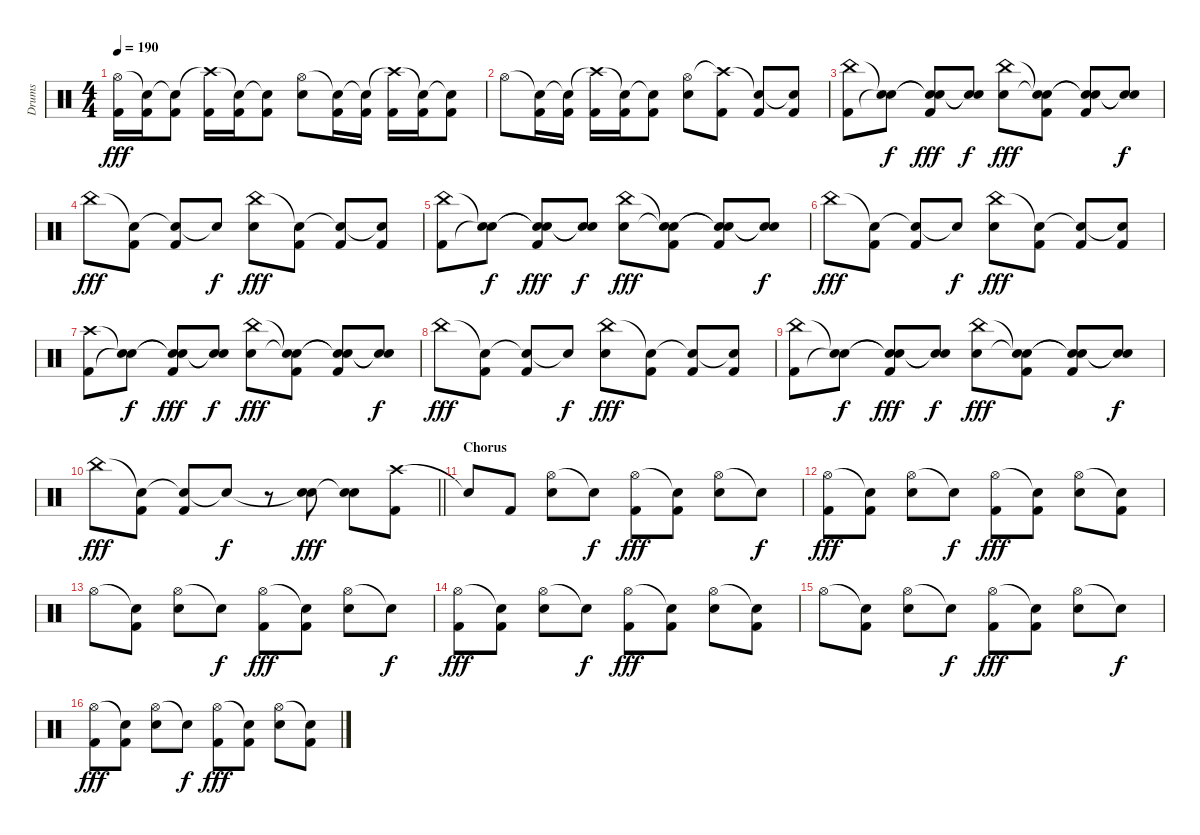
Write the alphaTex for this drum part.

\track ("Drums" "Drums") {instrument percussion}
\staff {score}
\articulation defaults
\ts (4 4)
\tempo 190
\clef neutral
\ks c
("Hi-Hat (open)" "Kick (hit) 2").16{dy fff} ("Snare (hit)"{t} "Kick (hit) 2").16 ("Snare (hit)"{t} "Kick (hit) 2").8 ("Crash high (hit)"{t} "Kick (hit) 2").16 ("Snare (hit)"{t} "Kick (hit) 2").16 ("Snare (hit)"{t} "Kick (hit) 2").8 ("Hi-Hat (open)" "Electric Snare (hit)").8 ("Snare (hit)"{t} "Kick (hit) 2").16 ("Snare (hit)"{t} "Kick (hit) 2").16 ("Crash high (hit)"{t} "Kick (hit) 2").16 ("Snare (hit)"{t} "Kick (hit) 2").16 ("Snare (hit)"{t} "Kick (hit) 2").8 |
"Hi-Hat (open)".8 ("Snare (hit)"{t} "Kick (hit) 2").16 ("Snare (hit)"{t} "Kick (hit) 2").16 ("Crash high (hit)"{t} "Kick (hit) 2").16 ("Snare (hit)"{t} "Kick (hit) 2").16 ("Snare (hit)"{t} "Kick (hit) 2").8 ("Hi-Hat (open)" "Electric Snare (hit)").8 ("Crash high (hit)"{t} "Kick (hit) 2").8 ("Snare (hit)"{t} "Kick (hit) 2").8 ("Snare (hit)"{t} "Kick (hit) 2").8 |
("China (hit)" "Kick (hit) 2").8 ("Snare (hit)"{t} "Snare (hit)"{t}).8{dy f} ("Snare (hit)"{t} "Snare (hit)"{t} "Kick (hit) 2").8{dy fff} ("Snare (hit)"{t} "Snare (hit)"{t}).8{dy f} ("China (hit)" "Electric Snare (hit)").8{dy fff} ("Snare (hit)"{t} "Snare (hit)"{t} "Kick (hit) 2").8 ("Snare (hit)"{t} "Snare (hit)"{t} "Kick (hit) 2").8 ("Snare (hit)"{t} "Snare (hit)"{t}).8{dy f} |
"China (hit)".8{dy fff} ("Snare (hit)"{t} "Kick (hit) 2").8 ("Snare (hit)"{t} "Kick (hit) 2").8 "Snare (hit)"{t}.8{dy f} ("China (hit)" "Electric Snare (hit)").8{dy fff} ("Snare (hit)"{t} "Kick (hit) 2").8 ("Snare (hit)"{t} "Kick (hit) 2").8 ("Snare (hit)"{t} "Kick (hit) 2").8 |
("China (hit)" "Kick (hit) 2").8 ("Snare (hit)"{t} "Snare (hit)"{t}).8{dy f} ("Snare (hit)"{t} "Snare (hit)"{t} "Kick (hit) 2").8{dy fff} ("Snare (hit)"{t} "Snare (hit)"{t}).8{dy f} ("China (hit)" "Electric Snare (hit)").8{dy fff} ("Snare (hit)"{t} "Snare (hit)"{t} "Kick (hit) 2").8 ("Snare (hit)"{t} "Snare (hit)"{t} "Kick (hit) 2").8 ("Snare (hit)"{t} "Snare (hit)"{t}).8{dy f} |
"China (hit)".8{dy fff} ("Snare (hit)"{t} "Kick (hit) 2").8 ("Snare (hit)"{t} "Kick (hit) 2").8 "Snare (hit)"{t}.8{dy f} ("China (hit)" "Electric Snare (hit)").8{dy fff} ("Snare (hit)"{t} "Kick (hit) 2").8 ("Snare (hit)"{t} "Kick (hit) 2").8 ("Snare (hit)"{t} "Kick (hit) 2").8 |
("Crash high (hit)" "Kick (hit) 2").8 ("Snare (hit)"{t} "Snare (hit)"{t}).8{dy f} ("Snare (hit)"{t} "Snare (hit)"{t} "Kick (hit) 2").8{dy fff} ("Snare (hit)"{t} "Snare (hit)"{t}).8{dy f} ("China (hit)" "Electric Snare (hit)").8{dy fff} ("Snare (hit)"{t} "Snare (hit)"{t} "Kick (hit) 2").8 ("Snare (hit)"{t} "Snare (hit)"{t} "Kick (hit) 2").8 ("Snare (hit)"{t} "Snare (hit)"{t}).8{dy f} |
"China (hit)".8{dy fff} ("Snare (hit)"{t} "Kick (hit) 2").8 ("Snare (hit)"{t} "Kick (hit) 2").8 "Snare (hit)"{t}.8{dy f} ("China (hit)" "Electric Snare (hit)").8{dy fff} ("Snare (hit)"{t} "Kick (hit) 2").8 ("Snare (hit)"{t} "Kick (hit) 2").8 ("Snare (hit)"{t} "Kick (hit) 2").8 |
("China (hit)" "Kick (hit) 2").8 ("Snare (hit)"{t} "Snare (hit)"{t}).8{dy f} ("Snare (hit)"{t} "Snare (hit)"{t} "Kick (hit) 2").8{dy fff} ("Snare (hit)"{t} "Snare (hit)"{t}).8{dy f} ("China (hit)" "Electric Snare (hit)").8{dy fff} ("Snare (hit)"{t} "Snare (hit)"{t} "Kick (hit) 2").8 ("Snare (hit)"{t} "Snare (hit)"{t} "Kick (hit) 2").8 ("Snare (hit)"{t} "Snare (hit)"{t}).8{dy f} |
\barLineRight lightlight "China (hit)".8{dy fff}
("Snare (hit)"{t} "Kick (hit) 2").8 ("Snare (hit)"{t} "Kick (hit) 2").8 "Snare (hit)"{t}.8{dy f} r.8 ("Snare (hit)"{t} "Electric Snare (hit)").8{dy fff} ("Snare (hit)"{t} "Electric Snare (hit)").8 ("Crash high (hit)" "Kick (hit) 2").8 |
\section ("" "Chorus")
"Snare (hit)"{t}.8 "Kick (hit) 2".8 ("Hi-Hat (open)" "Electric Snare (hit)").8 "Snare (hit)"{t}.8{dy f} ("Hi-Hat (open)" "Kick (hit) 2").8{dy fff} ("Snare (hit)"{t} "Kick (hit) 2").8 ("Hi-Hat (open)" "Electric Snare (hit)").8 "Snare (hit)"{t}.8{dy f} |
("Hi-Hat (open)" "Kick (hit) 2").8{dy fff} ("Snare (hit)"{t} "Kick (hit) 2").8 ("Hi-Hat (open)" "Electric Snare (hit)").8 "Snare (hit)"{t}.8{dy f} ("Hi-Hat (open)" "Kick (hit) 2").8{dy fff} ("Snare (hit)"{t} "Kick (hit) 2").8 ("Hi-Hat (open)" "Electric Snare (hit)").8 ("Snare (hit)"{t} "Kick (hit) 2").8 |
"Hi-Hat (open)".8 ("Snare (hit)"{t} "Kick (hit) 2").8 ("Hi-Hat (open)" "Electric Snare (hit)").8 "Snare (hit)"{t}.8{dy f} ("Hi-Hat (open)" "Kick (hit) 2").8{dy fff} ("Snare (hit)"{t} "Kick (hit) 2").8 ("Hi-Hat (open)" "Electric Snare (hit)").8 "Snare (hit)"{t}.8{dy f} |
("Hi-Hat (open)" "Kick (hit) 2").8{dy fff} ("Snare (hit)"{t} "Kick (hit) 2").8 ("Hi-Hat (open)" "Electric Snare (hit)").8 "Snare (hit)"{t}.8{dy f} ("Hi-Hat (open)" "Kick (hit) 2").8{dy fff} ("Snare (hit)"{t} "Kick (hit) 2").8 ("Hi-Hat (open)" "Electric Snare (hit)").8 ("Snare (hit)"{t} "Kick (hit) 2").8 |
"Hi-Hat (open)".8 ("Snare (hit)"{t} "Kick (hit) 2").8 ("Hi-Hat (open)" "Electric Snare (hit)").8 "Snare (hit)"{t}.8{dy f} ("Hi-Hat (open)" "Kick (hit) 2").8{dy fff} ("Snare (hit)"{t} "Kick (hit) 2").8 ("Hi-Hat (open)" "Electric Snare (hit)").8 "Snare (hit)"{t}.8{dy f} |
("Hi-Hat (open)" "Kick (hit) 2").8{dy fff} ("Snare (hit)"{t} "Kick (hit) 2").8 ("Hi-Hat (open)" "Electric Snare (hit)").8 "Snare (hit)"{t}.8{dy f} ("Hi-Hat (open)" "Kick (hit) 2").8{dy fff} ("Snare (hit)"{t} "Kick (hit) 2").8 ("Hi-Hat (open)" "Electric Snare (hit)").8 ("Snare (hit)"{t} "Kick (hit) 2").8
